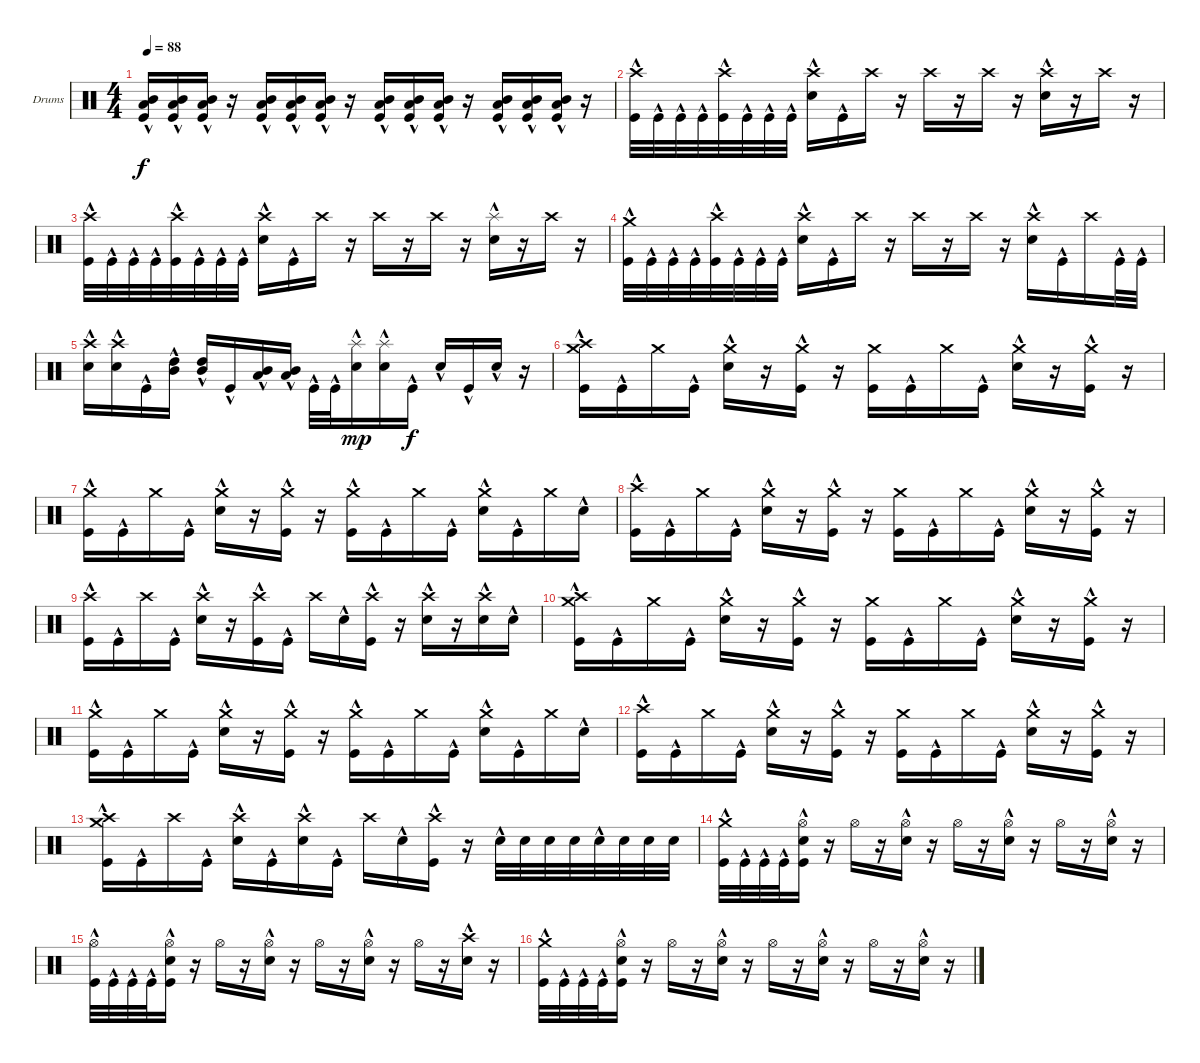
\bracketExtendMode groupsimilarinstruments
\firstSystemTrackNameOrientation horizontal
\otherSystemsTrackNameOrientation horizontal
\track ("Drumkit" "Drums") {instrument percussion}
\staff {score}
\articulation defaults
\ts (4 4)
\tempo 88
\clef neutral
\ks c
("Kick (hit)"{hac} "Low Tom (hit)"{hac} "Mid Tom (hit)"{hac}).16{dy f} ("Kick (hit)"{hac} "Low Tom (hit)"{hac} "Mid Tom (hit)"{hac}).16 ("Kick (hit)"{hac} "Low Tom (hit)"{hac} "Mid Tom (hit)"{hac}).16 r.16 ("Kick (hit)"{hac} "Low Tom (hit)"{hac} "Mid Tom (hit)"{hac}).16 ("Kick (hit)"{hac} "Low Tom (hit)"{hac} "Mid Tom (hit)"{hac}).16 ("Kick (hit)"{hac} "Low Tom (hit)"{hac} "Mid Tom (hit)"{hac}).16 r.16 ("Kick (hit)"{hac} "Low Tom (hit)"{hac} "Mid Tom (hit)"{hac}).16 ("Kick (hit)"{hac} "Low Tom (hit)"{hac} "Mid Tom (hit)"{hac}).16 ("Kick (hit)"{hac} "Low Tom (hit)"{hac} "Mid Tom (hit)"{hac}).16 r.16 ("Kick (hit)"{hac} "Low Tom (hit)"{hac} "Mid Tom (hit)"{hac}).16 ("Kick (hit)"{hac} "Low Tom (hit)"{hac} "Mid Tom (hit)"{hac}).16 ("Kick (hit)"{hac} "Low Tom (hit)"{hac} "Mid Tom (hit)"{hac}).16 r.16 |
("Kick (hit)"{hac} "Crash high (hit)").32 "Kick (hit)"{hac}.32 "Kick (hit)"{hac}.32 "Kick (hit)"{hac}.32 ("Kick (hit)"{hac} "Crash high (hit)").32 "Kick (hit)"{hac}.32 "Kick (hit)"{hac}.32 "Kick (hit)"{hac}.32 ("Snare (hit) 2"{hac} "Crash high (hit)").16 "Kick (hit)"{hac}.16 "Crash high (hit)".16 r.16 "Crash high (hit)".16 r.16 "Crash high (hit)".16 r.16 ("Snare (hit) 2"{hac} "Crash high (hit)").16 r.16 "Crash high (hit)".16 r.16 |
("Kick (hit)"{hac} "Crash high (hit)").32 "Kick (hit)"{hac}.32 "Kick (hit)"{hac}.32 "Kick (hit)"{hac}.32 ("Kick (hit)"{hac} "Crash high (hit)").32 "Kick (hit)"{hac}.32 "Kick (hit)"{hac}.32 "Kick (hit)"{hac}.32 ("Snare (hit) 2"{hac} "Crash high (hit)").16 "Kick (hit)"{hac}.16 "Crash high (hit)".16 r.16 "Crash high (hit)".16 r.16 "Crash high (hit)".16 r.16 ("Snare (hit) 2"{hac} "Splash (hit)").16 r.16 "Crash high (hit)".16 r.16 |
("Kick (hit)"{hac} "Crash medium (hit)").32 "Kick (hit)"{hac}.32 "Kick (hit)"{hac}.32 "Kick (hit)"{hac}.32 ("Kick (hit)"{hac} "Crash high (hit)").32 "Kick (hit)"{hac}.32 "Kick (hit)"{hac}.32 "Kick (hit)"{hac}.32 ("Snare (hit) 2"{hac} "Crash high (hit)").16 "Kick (hit)"{hac}.16 "Crash high (hit)".16 r.16 "Crash high (hit)".16 r.16 "Crash high (hit)".16 r.16 ("Snare (hit) 2"{hac} "Crash high (hit)").16 "Kick (hit)"{hac}.16 "Crash high (hit)".16 "Kick (hit)"{hac}.32 "Kick (hit)"{hac}.32 |
("Snare (hit) 2"{hac} "Crash high (hit)").16 ("Snare (hit) 2"{hac} "Crash high (hit)").16 "Kick (hit)"{hac}.16 ("High Tom (hit)"{hac} "Mid Tom (hit)"{hac}).16 ("High Tom (hit)"{hac} "Mid Tom (hit)"{hac}).16 "Kick (hit)"{hac}.16 ("Mid Tom (hit)"{hac} "Low Tom (hit)"{hac}).16 ("Mid Tom (hit)"{hac} "Low Tom (hit)"{hac}).16 "Kick (hit)"{hac}.32 "Kick (hit)"{hac}.32 ("Snare (hit) 2"{hac} "Splash (hit)").16{dy mp} ("Snare (hit) 2"{hac} "Splash (hit)").16 "Kick (hit)"{hac}.16{dy f} "Snare (hit) 2"{hac}.16 "Kick (hit)"{hac}.16 "Snare (hit) 2"{hac}.16 r.16 |
("Kick (hit)"{hac} "Crash high (hit)" "Crash medium (hit)").16 "Kick (hit)"{hac}.16 "Crash medium (hit)".16 "Kick (hit)"{hac}.16 ("Snare (hit) 2"{hac} "Crash medium (hit)").16 r.16 ("Kick (hit)"{hac} "Crash medium (hit)").16 r.16 ("Kick (hit)" "Crash medium (hit)").16 "Kick (hit)"{hac}.16 "Crash medium (hit)".16 "Kick (hit)"{hac}.16 ("Snare (hit) 2"{hac} "Crash medium (hit)").16 r.16 ("Kick (hit)"{hac} "Crash medium (hit)").16 r.16 |
("Kick (hit)"{hac} "Crash medium (hit)").16 "Kick (hit)"{hac}.16 "Crash medium (hit)".16 "Kick (hit)"{hac}.16 ("Snare (hit) 2"{hac} "Crash medium (hit)").16 r.16 ("Kick (hit)"{hac} "Crash medium (hit)").16 r.16 ("Kick (hit)"{hac} "Crash medium (hit)").16 "Kick (hit)"{hac}.16 "Crash medium (hit)".16 "Kick (hit)"{hac}.16 ("Snare (hit) 2"{hac} "Crash medium (hit)").16 "Kick (hit)"{hac}.16 "Crash medium (hit)".16 "Snare (hit) 2"{hac}.16 |
("Kick (hit)"{hac} "Crash high (hit)").16 "Kick (hit)"{hac}.16 "Crash medium (hit)".16 "Kick (hit)"{hac}.16 ("Snare (hit) 2"{hac} "Crash medium (hit)").16 r.16 ("Kick (hit)"{hac} "Crash medium (hit)").16 r.16 ("Kick (hit)" "Crash medium (hit)").16 "Kick (hit)"{hac}.16 "Crash medium (hit)".16 "Kick (hit)"{hac}.16 ("Snare (hit) 2"{hac} "Crash medium (hit)").16 r.16 ("Kick (hit)"{hac} "Crash medium (hit)").16 r.16 |
("Kick (hit)"{hac} "Crash high (hit)").16 "Kick (hit)"{hac}.16 "Crash high (hit)".16 "Kick (hit)"{hac}.16 ("Snare (hit) 2"{hac} "Crash high (hit)").16 r.16 ("Kick (hit)"{hac} "Crash high (hit)").16 "Kick (hit)"{hac}.16 "Crash high (hit)".16 "Snare (hit) 2"{hac}.16 ("Kick (hit)"{hac} "Crash high (hit)").16 r.16 ("Snare (hit) 2"{hac} "Crash high (hit)").16 r.16 ("Snare (hit) 2"{hac} "Crash high (hit)").16 "Snare (hit) 2"{hac}.16 |
("Kick (hit)"{hac} "Crash high (hit)" "Crash medium (hit)").16 "Kick (hit)"{hac}.16 "Crash medium (hit)".16 "Kick (hit)"{hac}.16 ("Snare (hit) 2"{hac} "Crash medium (hit)").16 r.16 ("Kick (hit)"{hac} "Crash medium (hit)").16 r.16 ("Kick (hit)" "Crash medium (hit)").16 "Kick (hit)"{hac}.16 "Crash medium (hit)".16 "Kick (hit)"{hac}.16 ("Snare (hit) 2"{hac} "Crash medium (hit)").16 r.16 ("Kick (hit)"{hac} "Crash medium (hit)").16 r.16 |
("Kick (hit)"{hac} "Crash medium (hit)").16 "Kick (hit)"{hac}.16 "Crash medium (hit)".16 "Kick (hit)"{hac}.16 ("Snare (hit) 2"{hac} "Crash medium (hit)").16 r.16 ("Kick (hit)"{hac} "Crash medium (hit)").16 r.16 ("Kick (hit)"{hac} "Crash medium (hit)").16 "Kick (hit)"{hac}.16 "Crash medium (hit)".16 "Kick (hit)"{hac}.16 ("Snare (hit) 2"{hac} "Crash medium (hit)").16 "Kick (hit)"{hac}.16 "Crash medium (hit)".16 "Snare (hit) 2"{hac}.16 |
("Kick (hit)"{hac} "Crash high (hit)").16 "Kick (hit)"{hac}.16 "Crash medium (hit)".16 "Kick (hit)"{hac}.16 ("Snare (hit) 2"{hac} "Crash medium (hit)").16 r.16 ("Kick (hit)"{hac} "Crash medium (hit)").16 r.16 ("Kick (hit)" "Crash medium (hit)").16 "Kick (hit)"{hac}.16 "Crash medium (hit)".16 "Kick (hit)"{hac}.16 ("Snare (hit) 2"{hac} "Crash medium (hit)").16 r.16 ("Kick (hit)"{hac} "Crash medium (hit)").16 r.16 |
("Kick (hit)"{hac} "Crash medium (hit)" "Crash high (hit)").16 "Kick (hit)"{hac}.16 "Crash high (hit)".16 "Kick (hit)"{hac}.16 ("Snare (hit) 2"{hac} "Crash high (hit)").16 "Kick (hit)"{hac}.16 ("Snare (hit) 2"{hac} "Crash high (hit)").16 "Kick (hit)"{hac}.16 "Crash high (hit)".16 "Snare (hit) 2"{hac}.16 ("Kick (hit)"{hac} "Crash high (hit)").16 r.16 "Snare (hit) 2"{hac}.32 "Snare (hit) 2".32 "Snare (hit) 2".32 "Snare (hit) 2".32 "Snare (hit) 2"{hac}.32 "Snare (hit) 2".32 "Snare (hit) 2".32 "Snare (hit) 2".32 |
("Kick (hit)"{hac} "Crash medium (hit)").32 "Kick (hit)"{hac}.32 "Kick (hit)"{hac}.32 "Kick (hit)"{hac}.32 ("Kick (hit)"{hac} "Snare (hit) 2" "Hi-Hat (open)").16 r.16 "Hi-Hat (open)".16 r.16 ("Snare (hit) 2"{hac} "Hi-Hat (open)").16 r.16 "Hi-Hat (open)".16 r.16 ("Snare (hit) 2"{hac} "Hi-Hat (open)").16 r.16 "Hi-Hat (open)".16 r.16 ("Snare (hit) 2"{hac} "Hi-Hat (open)").16 r.16 |
("Kick (hit)"{hac} "Hi-Hat (open)").32 "Kick (hit)"{hac}.32 "Kick (hit)"{hac}.32 "Kick (hit)"{hac}.32 ("Kick (hit)"{hac} "Snare (hit) 2" "Hi-Hat (open)").16 r.16 "Hi-Hat (open)".16 r.16 ("Snare (hit) 2"{hac} "Hi-Hat (open)").16 r.16 "Hi-Hat (open)".16 r.16 ("Snare (hit) 2"{hac} "Hi-Hat (open)").16 r.16 "Hi-Hat (open)".16 r.16 ("Snare (hit) 2"{hac} "Crash high (hit)").16 r.16 |
("Kick (hit)"{hac} "Crash medium (hit)").32 "Kick (hit)"{hac}.32 "Kick (hit)"{hac}.32 "Kick (hit)"{hac}.32 ("Kick (hit)"{hac} "Snare (hit) 2" "Hi-Hat (open)").16 r.16 "Hi-Hat (open)".16 r.16 ("Snare (hit) 2"{hac} "Hi-Hat (open)").16 r.16 "Hi-Hat (open)".16 r.16 ("Snare (hit) 2"{hac} "Hi-Hat (open)").16 r.16 "Hi-Hat (open)".16 r.16 ("Snare (hit) 2"{hac} "Hi-Hat (open)").16 r.16
